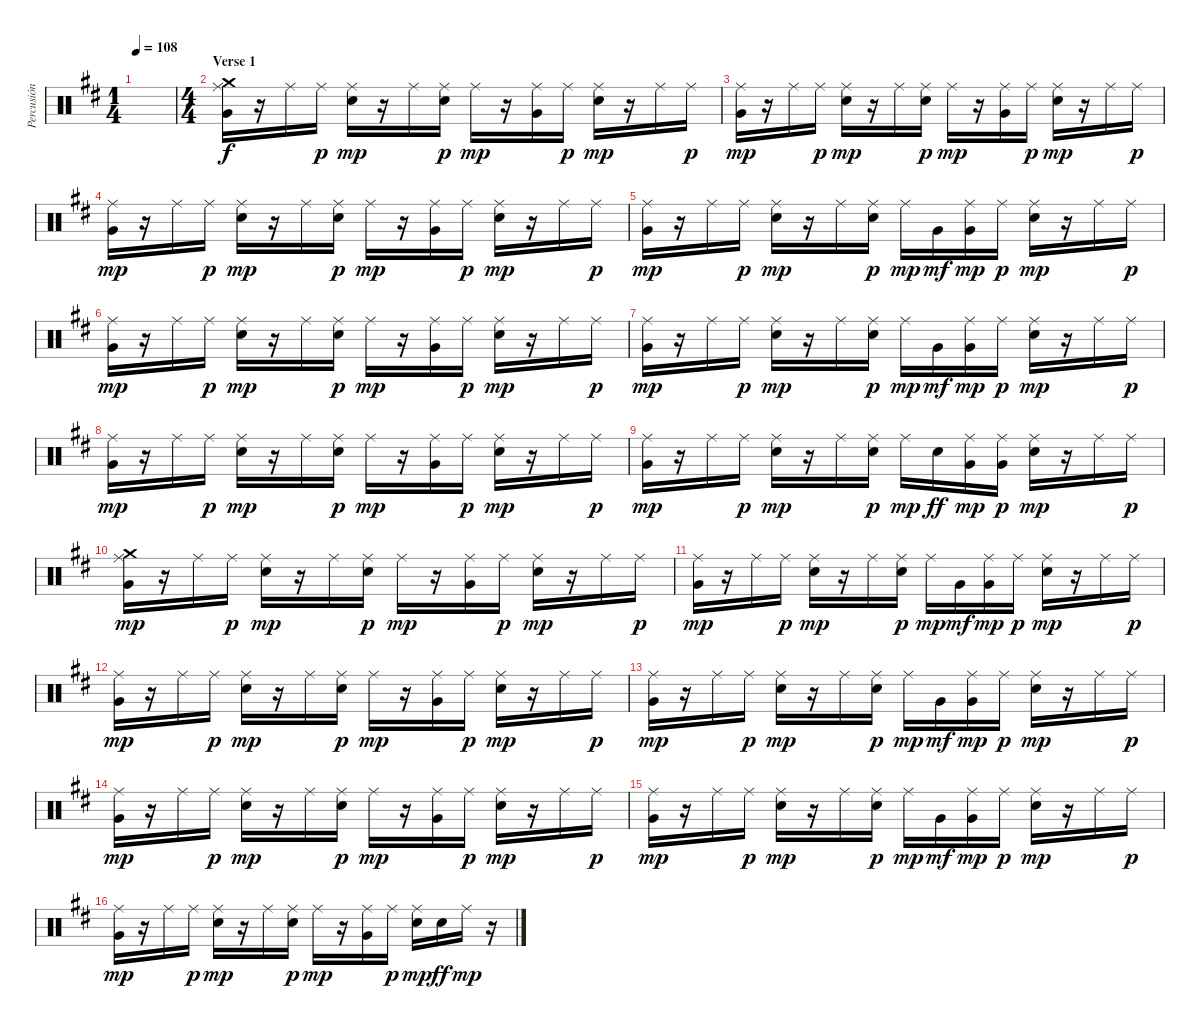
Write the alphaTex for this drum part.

\track ("Percusión" "Percusión") {instrument percussion}
\staff {score}
\articulation defaults
\ts (1 4)
\tempo 108
\clef neutral
\ks bminor
|
\ts (4 4)
\section ("" "Verse 1")
("Crash medium (hit)" "Very Low Tom (hit)" "Ride (middle)").16 r.16 "Ride (middle)".16 "Ride (middle)".16{dy p} ("Electric Snare (hit)" "Ride (middle)").16{dy mp} r.16 "Ride (middle)".16 ("Electric Snare (hit)" "Ride (middle)").16{dy p} "Ride (middle)".16{dy mp} r.16 ("Very Low Tom (hit)" "Ride (middle)").16 "Ride (middle)".16{dy p} ("Electric Snare (hit)" "Ride (middle)").16{dy mp} r.16 "Ride (middle)".16 "Ride (middle)".16{dy p} |
("Very Low Tom (hit)" "Ride (middle)").16{dy mp} r.16 "Ride (middle)".16 "Ride (middle)".16{dy p} ("Electric Snare (hit)" "Ride (middle)").16{dy mp} r.16 "Ride (middle)".16 ("Electric Snare (hit)" "Ride (middle)").16{dy p} "Ride (middle)".16{dy mp} r.16 ("Very Low Tom (hit)" "Ride (middle)").16 "Ride (middle)".16{dy p} ("Electric Snare (hit)" "Ride (middle)").16{dy mp} r.16 "Ride (middle)".16 "Ride (middle)".16{dy p} |
("Very Low Tom (hit)" "Ride (middle)").16{dy mp} r.16 "Ride (middle)".16 "Ride (middle)".16{dy p} ("Electric Snare (hit)" "Ride (middle)").16{dy mp} r.16 "Ride (middle)".16 ("Electric Snare (hit)" "Ride (middle)").16{dy p} "Ride (middle)".16{dy mp} r.16 ("Very Low Tom (hit)" "Ride (middle)").16 "Ride (middle)".16{dy p} ("Electric Snare (hit)" "Ride (middle)").16{dy mp} r.16 "Ride (middle)".16 "Ride (middle)".16{dy p} |
("Very Low Tom (hit)" "Ride (middle)").16{dy mp} r.16 "Ride (middle)".16 "Ride (middle)".16{dy p} ("Electric Snare (hit)" "Ride (middle)").16{dy mp} r.16 "Ride (middle)".16 ("Electric Snare (hit)" "Ride (middle)").16{dy p} "Ride (middle)".16{dy mp} "Very Low Tom (hit)".16{dy mf} ("Very Low Tom (hit)" "Ride (middle)").16{dy mp} "Ride (middle)".16{dy p} ("Electric Snare (hit)" "Ride (middle)").16{dy mp} r.16 "Ride (middle)".16 "Ride (middle)".16{dy p} |
("Very Low Tom (hit)" "Ride (middle)").16{dy mp} r.16 "Ride (middle)".16 "Ride (middle)".16{dy p} ("Electric Snare (hit)" "Ride (middle)").16{dy mp} r.16 "Ride (middle)".16 ("Electric Snare (hit)" "Ride (middle)").16{dy p} "Ride (middle)".16{dy mp} r.16 ("Very Low Tom (hit)" "Ride (middle)").16 "Ride (middle)".16{dy p} ("Electric Snare (hit)" "Ride (middle)").16{dy mp} r.16 "Ride (middle)".16 "Ride (middle)".16{dy p} |
("Very Low Tom (hit)" "Ride (middle)").16{dy mp} r.16 "Ride (middle)".16 "Ride (middle)".16{dy p} ("Electric Snare (hit)" "Ride (middle)").16{dy mp} r.16 "Ride (middle)".16 ("Electric Snare (hit)" "Ride (middle)").16{dy p} "Ride (middle)".16{dy mp} "Very Low Tom (hit)".16{dy mf} ("Very Low Tom (hit)" "Ride (middle)").16{dy mp} "Ride (middle)".16{dy p} ("Electric Snare (hit)" "Ride (middle)").16{dy mp} r.16 "Ride (middle)".16 "Ride (middle)".16{dy p} |
("Very Low Tom (hit)" "Ride (middle)").16{dy mp} r.16 "Ride (middle)".16 "Ride (middle)".16{dy p} ("Electric Snare (hit)" "Ride (middle)").16{dy mp} r.16 "Ride (middle)".16 ("Electric Snare (hit)" "Ride (middle)").16{dy p} "Ride (middle)".16{dy mp} r.16 ("Very Low Tom (hit)" "Ride (middle)").16 "Ride (middle)".16{dy p} ("Electric Snare (hit)" "Ride (middle)").16{dy mp} r.16 "Ride (middle)".16 "Ride (middle)".16{dy p} |
("Very Low Tom (hit)" "Ride (middle)").16{dy mp} r.16 "Ride (middle)".16 "Ride (middle)".16{dy p} ("Electric Snare (hit)" "Ride (middle)").16{dy mp} r.16 "Ride (middle)".16 ("Electric Snare (hit)" "Ride (middle)").16{dy p} "Ride (middle)".16{dy mp} "Electric Snare (hit)".16{dy ff} ("Very Low Tom (hit)" "Ride (middle)").16{dy mp} ("Very Low Tom (hit)" "Ride (middle)").16{dy p} ("Electric Snare (hit)" "Ride (middle)").16{dy mp} r.16 "Ride (middle)".16 "Ride (middle)".16{dy p} |
("Crash medium (hit)" "Very Low Tom (hit)" "Ride (middle)").16{dy mp} r.16 "Ride (middle)".16 "Ride (middle)".16{dy p} ("Electric Snare (hit)" "Ride (middle)").16{dy mp} r.16 "Ride (middle)".16 ("Electric Snare (hit)" "Ride (middle)").16{dy p} "Ride (middle)".16{dy mp} r.16 ("Very Low Tom (hit)" "Ride (middle)").16 "Ride (middle)".16{dy p} ("Electric Snare (hit)" "Ride (middle)").16{dy mp} r.16 "Ride (middle)".16 "Ride (middle)".16{dy p} |
("Very Low Tom (hit)" "Ride (middle)").16{dy mp} r.16 "Ride (middle)".16 "Ride (middle)".16{dy p} ("Electric Snare (hit)" "Ride (middle)").16{dy mp} r.16 "Ride (middle)".16 ("Electric Snare (hit)" "Ride (middle)").16{dy p} "Ride (middle)".16{dy mp} "Very Low Tom (hit)".16{dy mf} ("Very Low Tom (hit)" "Ride (middle)").16{dy mp} "Ride (middle)".16{dy p} ("Electric Snare (hit)" "Ride (middle)").16{dy mp} r.16 "Ride (middle)".16 "Ride (middle)".16{dy p} |
("Very Low Tom (hit)" "Ride (middle)").16{dy mp} r.16 "Ride (middle)".16 "Ride (middle)".16{dy p} ("Electric Snare (hit)" "Ride (middle)").16{dy mp} r.16 "Ride (middle)".16 ("Electric Snare (hit)" "Ride (middle)").16{dy p} "Ride (middle)".16{dy mp} r.16 ("Very Low Tom (hit)" "Ride (middle)").16 "Ride (middle)".16{dy p} ("Electric Snare (hit)" "Ride (middle)").16{dy mp} r.16 "Ride (middle)".16 "Ride (middle)".16{dy p} |
("Very Low Tom (hit)" "Ride (middle)").16{dy mp} r.16 "Ride (middle)".16 "Ride (middle)".16{dy p} ("Electric Snare (hit)" "Ride (middle)").16{dy mp} r.16 "Ride (middle)".16 ("Electric Snare (hit)" "Ride (middle)").16{dy p} "Ride (middle)".16{dy mp} "Very Low Tom (hit)".16{dy mf} ("Very Low Tom (hit)" "Ride (middle)").16{dy mp} "Ride (middle)".16{dy p} ("Electric Snare (hit)" "Ride (middle)").16{dy mp} r.16 "Ride (middle)".16 "Ride (middle)".16{dy p} |
("Very Low Tom (hit)" "Ride (middle)").16{dy mp} r.16 "Ride (middle)".16 "Ride (middle)".16{dy p} ("Electric Snare (hit)" "Ride (middle)").16{dy mp} r.16 "Ride (middle)".16 ("Electric Snare (hit)" "Ride (middle)").16{dy p} "Ride (middle)".16{dy mp} r.16 ("Very Low Tom (hit)" "Ride (middle)").16 "Ride (middle)".16{dy p} ("Electric Snare (hit)" "Ride (middle)").16{dy mp} r.16 "Ride (middle)".16 "Ride (middle)".16{dy p} |
("Very Low Tom (hit)" "Ride (middle)").16{dy mp} r.16 "Ride (middle)".16 "Ride (middle)".16{dy p} ("Electric Snare (hit)" "Ride (middle)").16{dy mp} r.16 "Ride (middle)".16 ("Electric Snare (hit)" "Ride (middle)").16{dy p} "Ride (middle)".16{dy mp} "Very Low Tom (hit)".16{dy mf} ("Very Low Tom (hit)" "Ride (middle)").16{dy mp} "Ride (middle)".16{dy p} ("Electric Snare (hit)" "Ride (middle)").16{dy mp} r.16 "Ride (middle)".16 "Ride (middle)".16{dy p} |
("Very Low Tom (hit)" "Ride (middle)").16{dy mp} r.16 "Ride (middle)".16 "Ride (middle)".16{dy p} ("Electric Snare (hit)" "Ride (middle)").16{dy mp} r.16 "Ride (middle)".16 ("Electric Snare (hit)" "Ride (middle)").16{dy p} "Ride (middle)".16{dy mp} r.16 ("Very Low Tom (hit)" "Ride (middle)").16 "Ride (middle)".16{dy p} ("Electric Snare (hit)" "Ride (middle)").16{dy mp} "Electric Snare (hit)".16{dy ff} "Ride (middle)".16{dy mp} r.16
